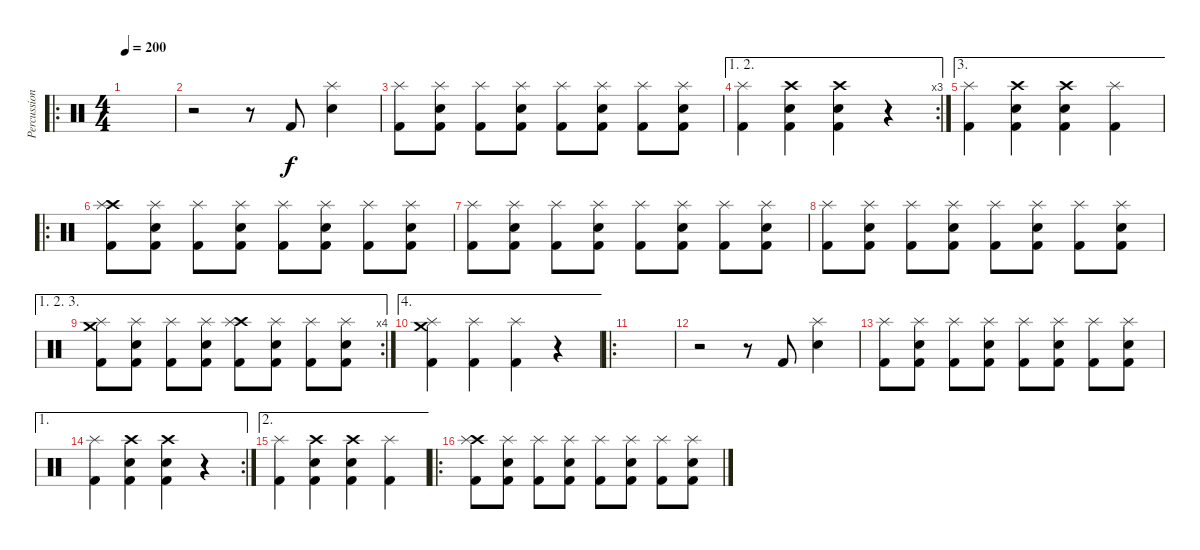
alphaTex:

\track ("Percussion" "Percussion") {instrument percussion}
\staff {score}
\articulation defaults
\ro
\ts (4 4)
\tempo 200
\clef neutral
\ks c
|
r.2 r.8 "Kick (hit) 2".8 ("Splash (hit)" "Snare (hit) 2").4 |
("Splash (hit)" "Kick (hit) 2").8 ("Splash (hit)" "Snare (hit) 2" "Kick (hit) 2").8 ("Splash (hit)" "Kick (hit) 2").8 ("Splash (hit)" "Snare (hit) 2" "Kick (hit) 2").8 ("Splash (hit)" "Kick (hit) 2").8 ("Splash (hit)" "Snare (hit) 2" "Kick (hit) 2").8 ("Splash (hit)" "Kick (hit) 2").8 ("Splash (hit)" "Snare (hit) 2" "Kick (hit) 2").8 |
\ae (1 2)
\rc 3
("Splash (hit)" "Kick (hit) 2").4 ("Crash high (hit)" "Snare (hit) 2" "Kick (hit) 2").4 ("Crash high (hit)" "Snare (hit) 2" "Kick (hit) 2").4 r.4 |
\ae 3
("Splash (hit)" "Kick (hit) 2").4 ("Crash high (hit)" "Snare (hit) 2" "Kick (hit) 2").4 ("Crash high (hit)" "Snare (hit) 2" "Kick (hit) 2").4 ("Splash (hit)" "Kick (hit) 2").4 |
\ro
("Crash high (hit)" "Splash (hit)" "Kick (hit) 2").8 ("Splash (hit)" "Snare (hit) 2" "Kick (hit) 2").8 ("Splash (hit)" "Kick (hit) 2").8 ("Splash (hit)" "Snare (hit) 2" "Kick (hit) 2").8 ("Splash (hit)" "Kick (hit) 2").8 ("Splash (hit)" "Snare (hit) 2" "Kick (hit) 2").8 ("Splash (hit)" "Kick (hit) 2").8 ("Splash (hit)" "Snare (hit) 2" "Kick (hit) 2").8 |
("Splash (hit)" "Kick (hit) 2").8 ("Splash (hit)" "Snare (hit) 2" "Kick (hit) 2").8 ("Splash (hit)" "Kick (hit) 2").8 ("Splash (hit)" "Snare (hit) 2" "Kick (hit) 2").8 ("Splash (hit)" "Kick (hit) 2").8 ("Splash (hit)" "Snare (hit) 2" "Kick (hit) 2").8 ("Splash (hit)" "Kick (hit) 2").8 ("Splash (hit)" "Snare (hit) 2" "Kick (hit) 2").8 |
("Splash (hit)" "Kick (hit) 2").8 ("Splash (hit)" "Snare (hit) 2" "Kick (hit) 2").8 ("Splash (hit)" "Kick (hit) 2").8 ("Splash (hit)" "Snare (hit) 2" "Kick (hit) 2").8 ("Splash (hit)" "Kick (hit) 2").8 ("Splash (hit)" "Snare (hit) 2" "Kick (hit) 2").8 ("Splash (hit)" "Kick (hit) 2").8 ("Splash (hit)" "Snare (hit) 2" "Kick (hit) 2").8 |
\ae (1 2 3)
\rc 4
("Crash medium (hit)" "Splash (hit)" "Kick (hit) 2").8 ("Splash (hit)" "Snare (hit) 2" "Kick (hit) 2").8 ("Splash (hit)" "Kick (hit) 2").8 ("Splash (hit)" "Snare (hit) 2" "Kick (hit) 2").8 ("Crash high (hit)" "Splash (hit)" "Kick (hit) 2").8 ("Splash (hit)" "Snare (hit) 2" "Kick (hit) 2").8 ("Splash (hit)" "Kick (hit) 2").8 ("Splash (hit)" "Snare (hit) 2" "Kick (hit) 2").8 |
\ae 4
("Crash medium (hit)" "Splash (hit)" "Kick (hit) 2").4 ("Splash (hit)" "Kick (hit) 2").4 ("Splash (hit)" "Kick (hit) 2").4 r.4 |
\ro
|
r.2 r.8 "Kick (hit) 2".8 ("Splash (hit)" "Snare (hit) 2").4 |
("Splash (hit)" "Kick (hit) 2").8 ("Splash (hit)" "Snare (hit) 2" "Kick (hit) 2").8 ("Splash (hit)" "Kick (hit) 2").8 ("Splash (hit)" "Snare (hit) 2" "Kick (hit) 2").8 ("Splash (hit)" "Kick (hit) 2").8 ("Splash (hit)" "Snare (hit) 2" "Kick (hit) 2").8 ("Splash (hit)" "Kick (hit) 2").8 ("Splash (hit)" "Snare (hit) 2" "Kick (hit) 2").8 |
\ae 1
\rc 2
("Splash (hit)" "Kick (hit) 2").4 ("Crash high (hit)" "Snare (hit) 2" "Kick (hit) 2").4 ("Crash high (hit)" "Snare (hit) 2" "Kick (hit) 2").4 r.4 |
\ae 2
("Splash (hit)" "Kick (hit) 2").4 ("Crash high (hit)" "Snare (hit) 2" "Kick (hit) 2").4 ("Crash high (hit)" "Snare (hit) 2" "Kick (hit) 2").4 ("Splash (hit)" "Kick (hit) 2").4 |
\ro
("Crash high (hit)" "Splash (hit)" "Kick (hit) 2").8 ("Splash (hit)" "Snare (hit) 2" "Kick (hit) 2").8 ("Splash (hit)" "Kick (hit) 2").8 ("Splash (hit)" "Snare (hit) 2" "Kick (hit) 2").8 ("Splash (hit)" "Kick (hit) 2").8 ("Splash (hit)" "Snare (hit) 2" "Kick (hit) 2").8 ("Splash (hit)" "Kick (hit) 2").8 ("Splash (hit)" "Snare (hit) 2" "Kick (hit) 2").8
